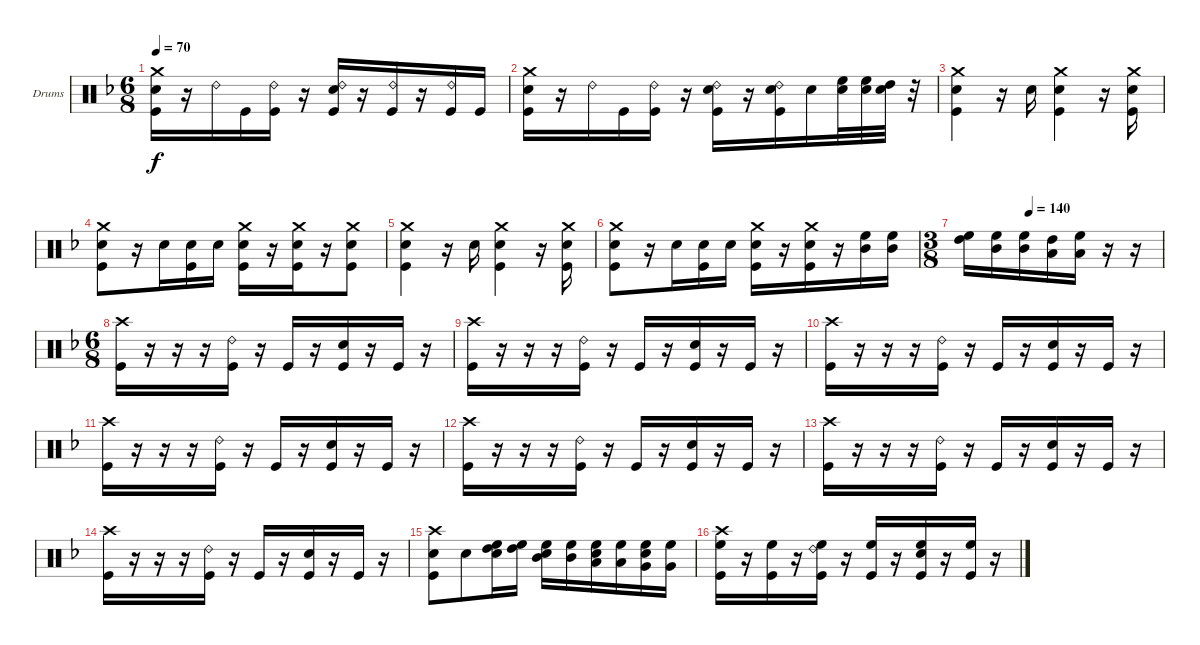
\bracketExtendMode groupsimilarinstruments
\firstSystemTrackNameOrientation horizontal
\otherSystemsTrackNameOrientation horizontal
\track ("Drumkit" "Drums") {instrument percussion}
\staff {score}
\articulation defaults
\ts (6 8)
\tempo 70
\clef neutral
\ks f
("Crash medium (hit)" "Snare (hit) 2" "Kick (hit)").16{dy f} r.16 "Ride (bell) 2".16 "Kick (hit)".16 ("Ride (bell) 2" "Kick (hit)").16 r.16 ("Ride (bell) 2" "Snare (hit) 2" "Kick (hit)").16 r.16 ("Ride (bell) 2" "Kick (hit)").16 r.16 ("Ride (bell) 2" "Kick (hit)").16 "Kick (hit)".16 |
("Crash medium (hit)" "Snare (hit) 2" "Kick (hit)").16 r.16 "Ride (bell) 2".16 "Kick (hit)".16 ("Ride (bell) 2" "Kick (hit)").16 r.16 ("Ride (bell) 2" "Snare (hit) 2" "Kick (hit)").16 r.16 ("Ride (bell) 2" "Snare (hit) 2" "Kick (hit)").16 "Snare (hit) 2".16 ("High Floor Tom (hit)" "Snare (hit) 2").32 ("High Floor Tom (hit)" "Snare (hit) 2").32 ("High Tom (hit)" "Snare (hit) 2").32 r.32 |
("Crash medium (hit)" "Snare (hit) 2" "Kick (hit)").4 r.16 "Snare (hit) 2".16 ("Crash medium (hit)" "Snare (hit) 2" "Kick (hit)").4 r.16 ("Crash medium (hit)" "Snare (hit) 2" "Kick (hit)").16 |
("Crash medium (hit)" "Snare (hit) 2" "Kick (hit)").8 r.16 "Snare (hit) 2".16 ("Snare (hit) 2" "Kick (hit)").16 "Snare (hit) 2".16 ("Crash medium (hit)" "Snare (hit) 2" "Kick (hit)").16 r.16 ("Crash medium (hit)" "Snare (hit) 2" "Kick (hit)").16 r.16 ("Crash medium (hit)" "Snare (hit) 2" "Kick (hit)").8 |
("Crash medium (hit)" "Snare (hit) 2" "Kick (hit)").4 r.16 "Snare (hit) 2".16 ("Crash medium (hit)" "Snare (hit) 2" "Kick (hit)").4 r.16 ("Crash medium (hit)" "Snare (hit) 2" "Kick (hit)").16 |
("Crash medium (hit)" "Snare (hit) 2" "Kick (hit)").8 r.16 "Snare (hit) 2".16 ("Snare (hit) 2" "Kick (hit)").16 "Snare (hit) 2".16 ("Crash medium (hit)" "Snare (hit) 2" "Kick (hit)").16 r.16 ("Crash medium (hit)" "Snare (hit) 2" "Kick (hit)").16 r.16 ("High Floor Tom (hit)" "Mid Tom (hit)").16 ("Mid Tom (hit)" "High Floor Tom (hit)").16 |
\ts (3 8)
\tempo (140 0.333333)
("High Tom (hit)" "High Floor Tom (hit)").16 ("High Floor Tom (hit)" "Mid Tom (hit)").16 ("Mid Tom (hit)" "High Floor Tom (hit)").16 ("Low Tom (hit)" "High Tom (hit)").16 ("High Floor Tom (hit)" "Low Tom (hit)").16 r.16 r.16 |
\ts (6 8)
("Crash high (hit)" "Kick (hit)").16 r.16 r.16 r.16 ("Ride (bell) 2" "Kick (hit)").16 r.16 "Kick (hit)".16 r.16 ("Snare (hit) 2" "Kick (hit)").16 r.16 "Kick (hit)".16 r.16 |
("Crash high (hit)" "Kick (hit)").16 r.16 r.16 r.16 ("Ride (bell) 2" "Kick (hit)").16 r.16 "Kick (hit)".16 r.16 ("Snare (hit) 2" "Kick (hit)").16 r.16 "Kick (hit)".16 r.16 |
("Crash high (hit)" "Kick (hit)").16 r.16 r.16 r.16 ("Ride (bell) 2" "Kick (hit)").16 r.16 "Kick (hit)".16 r.16 ("Snare (hit) 2" "Kick (hit)").16 r.16 "Kick (hit)".16 r.16 |
("Crash high (hit)" "Kick (hit)").16 r.16 r.16 r.16 ("Ride (bell) 2" "Kick (hit)").16 r.16 "Kick (hit)".16 r.16 ("Snare (hit) 2" "Kick (hit)").16 r.16 "Kick (hit)".16 r.16 |
("Crash high (hit)" "Kick (hit)").16 r.16 r.16 r.16 ("Ride (bell) 2" "Kick (hit)").16 r.16 "Kick (hit)".16 r.16 ("Snare (hit) 2" "Kick (hit)").16 r.16 "Kick (hit)".16 r.16 |
("Crash high (hit)" "Kick (hit)").16 r.16 r.16 r.16 ("Ride (bell) 2" "Kick (hit)").16 r.16 "Kick (hit)".16 r.16 ("Snare (hit) 2" "Kick (hit)").16 r.16 "Kick (hit)".16 r.16 |
("Crash high (hit)" "Kick (hit)").16 r.16 r.16 r.16 ("Ride (bell) 2" "Kick (hit)").16 r.16 "Kick (hit)".16 r.16 ("Snare (hit) 2" "Kick (hit)").16 r.16 "Kick (hit)".16 r.16 |
("Crash high (hit)" "Kick (hit)" "Snare (hit) 2").8 "Snare (hit) 2".8 ("High Floor Tom (hit)" "High Tom (hit)" "Snare (hit) 2").16 ("High Floor Tom (hit)" "High Tom (hit)").16 ("High Floor Tom (hit)" "Mid Tom (hit)" "Snare (hit) 2").16 ("High Floor Tom (hit)" "Mid Tom (hit)").16 ("High Floor Tom (hit)" "Low Tom (hit)" "Snare (hit) 2").16 ("High Floor Tom (hit)" "Low Tom (hit)").16 ("High Floor Tom (hit)" "Very Low Tom (hit)" "Snare (hit) 2").16 ("High Floor Tom (hit)" "Very Low Tom (hit)").16 |
("Crash high (hit)" "High Floor Tom (hit)" "Kick (hit)").16 r.16 ("High Floor Tom (hit)" "Kick (hit)").16 r.16 ("Ride (bell) 2" "High Floor Tom (hit)" "Kick (hit)").16 r.16 ("High Floor Tom (hit)" "Kick (hit)").16 r.16 ("High Floor Tom (hit)" "Snare (hit) 2" "Kick (hit)").16 r.16 ("High Floor Tom (hit)" "Kick (hit)").16 r.16
